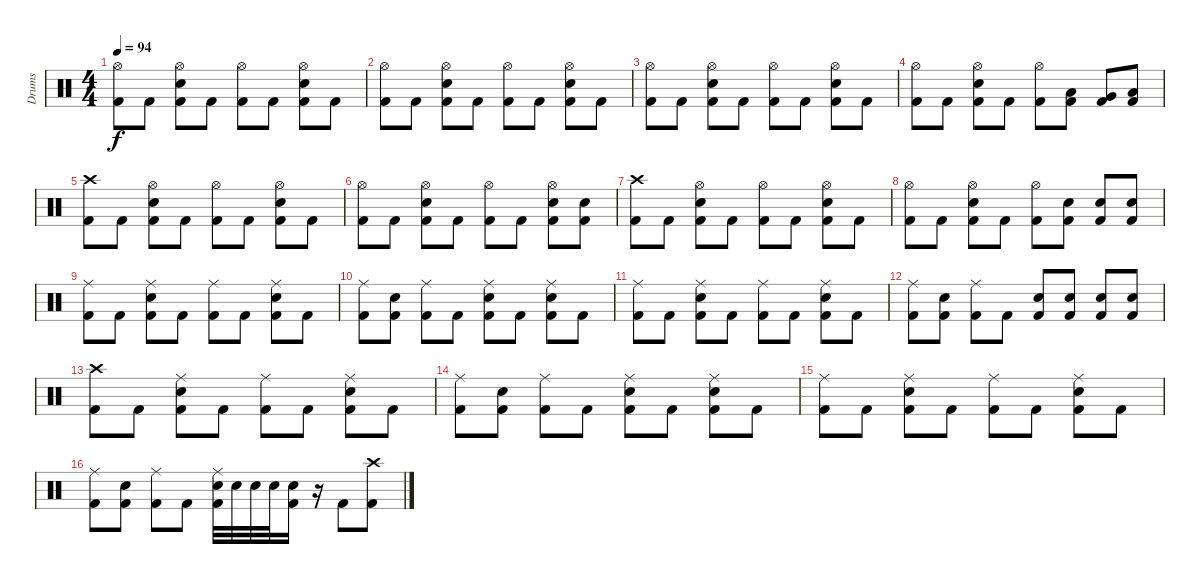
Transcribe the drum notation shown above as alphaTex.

\track ("Drums" "Drums") {instrument percussion}
\staff {score}
\articulation defaults
\ts (4 4)
\tempo 94
\clef neutral
\ks c
("Hi-Hat (open)" "Kick (hit) 2").8{dy f} "Kick (hit) 2".8 ("Hi-Hat (open)" "Snare (hit) 2" "Kick (hit) 2").8 "Kick (hit) 2".8 ("Hi-Hat (open)" "Kick (hit) 2").8 "Kick (hit) 2".8 ("Hi-Hat (open)" "Snare (hit) 2" "Kick (hit) 2").8 "Kick (hit) 2".8 |
("Hi-Hat (open)" "Kick (hit) 2").8 "Kick (hit) 2".8 ("Hi-Hat (open)" "Snare (hit) 2" "Kick (hit) 2").8 "Kick (hit) 2".8 ("Hi-Hat (open)" "Kick (hit) 2").8 "Kick (hit) 2".8 ("Hi-Hat (open)" "Snare (hit) 2" "Kick (hit) 2").8 "Kick (hit) 2".8 |
("Hi-Hat (open)" "Kick (hit) 2").8 "Kick (hit) 2".8 ("Hi-Hat (open)" "Snare (hit) 2" "Kick (hit) 2").8 "Kick (hit) 2".8 ("Hi-Hat (open)" "Kick (hit) 2").8 "Kick (hit) 2".8 ("Hi-Hat (open)" "Snare (hit) 2" "Kick (hit) 2").8 "Kick (hit) 2".8 |
("Hi-Hat (open)" "Kick (hit) 2").8 "Kick (hit) 2".8 ("Hi-Hat (open)" "Snare (hit) 2" "Kick (hit) 2").8 "Kick (hit) 2".8 ("Hi-Hat (open)" "Kick (hit) 2").8 ("Low Tom (hit)" "Kick (hit) 2").8 ("Very Low Tom (hit)" "Kick (hit) 2").8 ("Low Floor Tom (hit)" "Kick (hit) 2").8 |
("Crash high (hit)" "Kick (hit) 2").8 "Kick (hit) 2".8 ("Hi-Hat (open)" "Snare (hit) 2" "Kick (hit) 2").8 "Kick (hit) 2".8 ("Hi-Hat (open)" "Kick (hit) 2").8 "Kick (hit) 2".8 ("Hi-Hat (open)" "Snare (hit) 2" "Kick (hit) 2").8 "Kick (hit) 2".8 |
("Hi-Hat (open)" "Kick (hit) 2").8 "Kick (hit) 2".8 ("Hi-Hat (open)" "Snare (hit) 2" "Kick (hit) 2").8 "Kick (hit) 2".8 ("Hi-Hat (open)" "Kick (hit) 2").8 "Kick (hit) 2".8 ("Hi-Hat (open)" "Snare (hit) 2" "Kick (hit) 2").8 ("Snare (hit) 2" "Kick (hit) 2").8 |
("Crash high (hit)" "Kick (hit) 2").8 "Kick (hit) 2".8 ("Hi-Hat (open)" "Snare (hit) 2" "Kick (hit) 2").8 "Kick (hit) 2".8 ("Hi-Hat (open)" "Kick (hit) 2").8 "Kick (hit) 2".8 ("Hi-Hat (open)" "Snare (hit) 2" "Kick (hit) 2").8 "Kick (hit) 2".8 |
("Hi-Hat (open)" "Kick (hit) 2").8 "Kick (hit) 2".8 ("Hi-Hat (open)" "Snare (hit) 2" "Kick (hit) 2").8 "Kick (hit) 2".8 ("Hi-Hat (open)" "Kick (hit) 2").8 ("Snare (hit) 2" "Kick (hit) 2").8 ("Snare (hit) 2" "Kick (hit) 2").8 ("Snare (hit) 2" "Kick (hit) 2").8 |
("Ride (middle)" "Kick (hit) 2").8 "Kick (hit) 2".8 ("Ride (middle)" "Snare (hit) 2" "Kick (hit) 2").8 "Kick (hit) 2".8 ("Ride (middle)" "Kick (hit) 2").8 "Kick (hit) 2".8 ("Ride (middle)" "Snare (hit) 2" "Kick (hit) 2").8 "Kick (hit) 2".8 |
("Ride (middle)" "Kick (hit) 2").8 ("Snare (hit) 2" "Kick (hit) 2").8 ("Ride (middle)" "Kick (hit) 2").8 "Kick (hit) 2".8 ("Ride (middle)" "Snare (hit) 2" "Kick (hit) 2").8 "Kick (hit) 2".8 ("Ride (middle)" "Snare (hit) 2" "Kick (hit) 2").8 "Kick (hit) 2".8 |
("Ride (middle)" "Kick (hit) 2").8 "Kick (hit) 2".8 ("Ride (middle)" "Snare (hit) 2" "Kick (hit) 2").8 "Kick (hit) 2".8 ("Ride (middle)" "Kick (hit) 2").8 "Kick (hit) 2".8 ("Ride (middle)" "Snare (hit) 2" "Kick (hit) 2").8 "Kick (hit) 2".8 |
("Ride (middle)" "Kick (hit) 2").8 ("Snare (hit) 2" "Kick (hit) 2").8 ("Ride (middle)" "Kick (hit) 2").8 "Kick (hit) 2".8 ("Snare (hit) 2" "Kick (hit) 2").8 ("Snare (hit) 2" "Kick (hit) 2").8 ("Snare (hit) 2" "Kick (hit) 2").8 ("Snare (hit) 2" "Kick (hit) 2").8 |
("Crash high (hit)" "Kick (hit) 2").8 "Kick (hit) 2".8 ("Ride (middle)" "Snare (hit) 2" "Kick (hit) 2").8 "Kick (hit) 2".8 ("Ride (middle)" "Kick (hit) 2").8 "Kick (hit) 2".8 ("Ride (middle)" "Snare (hit) 2" "Kick (hit) 2").8 "Kick (hit) 2".8 |
("Ride (middle)" "Kick (hit) 2").8 ("Snare (hit) 2" "Kick (hit) 2").8 ("Ride (middle)" "Kick (hit) 2").8 "Kick (hit) 2".8 ("Ride (middle)" "Snare (hit) 2" "Kick (hit) 2").8 "Kick (hit) 2".8 ("Ride (middle)" "Snare (hit) 2" "Kick (hit) 2").8 "Kick (hit) 2".8 |
("Ride (middle)" "Kick (hit) 2").8 "Kick (hit) 2".8 ("Ride (middle)" "Snare (hit) 2" "Kick (hit) 2").8 "Kick (hit) 2".8 ("Ride (middle)" "Kick (hit) 2").8 "Kick (hit) 2".8 ("Ride (middle)" "Snare (hit) 2" "Kick (hit) 2").8 "Kick (hit) 2".8 |
("Ride (middle)" "Kick (hit) 2").8 ("Snare (hit) 2" "Kick (hit) 2").8 ("Ride (middle)" "Kick (hit) 2").8 "Kick (hit) 2".8 ("Ride (middle)" "Snare (hit) 2" "Kick (hit) 2").32 "Snare (hit) 2".32 "Snare (hit) 2".32 "Snare (hit) 2".32 ("Snare (hit) 2" "Kick (hit) 2").16 r.16 "Kick (hit) 2".8 ("Crash high (hit)" "Kick (hit) 2").8
